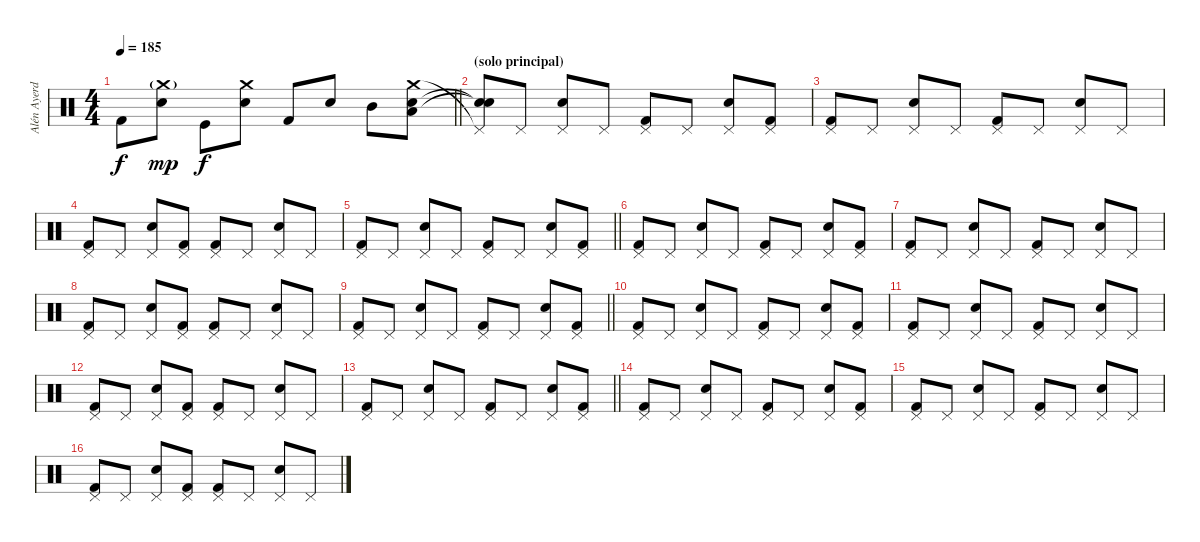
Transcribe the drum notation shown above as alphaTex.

\track ("Alén Ayerdi - Batería" "Alén Ayerd") {instrument percussion}
\staff {score}
\articulation defaults
\ts (4 4)
\tempo 185
\clef neutral
\barLineRight lightlight
\ks c "Kick (hit) 2".8{dy f}
("Crash medium (hit)"{g} "Electric Snare (hit)").8{dy mp} "Kick (hit)".8{dy f} ("Crash medium (hit)" "Electric Snare (hit)").8 "Kick (hit) 2".8 "Electric Snare (hit)".8 "Mid Tom (hit)".8 ("Crash medium (hit)" "Snare (hit) 2" "Low Tom (hit)").8 |
\section ("" "(solo principal)")
("Pedal Hi-Hat (hit)"{t} "Snare (hit)"{t} "Snare (hit)"{t}).8 "Pedal Hi-Hat (hit)".8 ("Pedal Hi-Hat (hit)" "Electric Snare (hit)").8 "Pedal Hi-Hat (hit)".8 ("Pedal Hi-Hat (hit)" "Kick (hit) 2").8 "Pedal Hi-Hat (hit)".8 ("Pedal Hi-Hat (hit)" "Electric Snare (hit)").8 ("Pedal Hi-Hat (hit)" "Kick (hit) 2").8 |
("Pedal Hi-Hat (hit)" "Kick (hit) 2").8 "Pedal Hi-Hat (hit)".8 ("Pedal Hi-Hat (hit)" "Electric Snare (hit)").8 "Pedal Hi-Hat (hit)".8 ("Pedal Hi-Hat (hit)" "Kick (hit) 2").8 "Pedal Hi-Hat (hit)".8 ("Pedal Hi-Hat (hit)" "Electric Snare (hit)").8 "Pedal Hi-Hat (hit)".8 |
("Pedal Hi-Hat (hit)" "Kick (hit) 2").8 "Pedal Hi-Hat (hit)".8 ("Pedal Hi-Hat (hit)" "Electric Snare (hit)").8 ("Pedal Hi-Hat (hit)" "Kick (hit) 2").8 ("Pedal Hi-Hat (hit)" "Kick (hit) 2").8 "Pedal Hi-Hat (hit)".8 ("Pedal Hi-Hat (hit)" "Electric Snare (hit)").8 "Pedal Hi-Hat (hit)".8 |
\barLineRight lightlight
("Pedal Hi-Hat (hit)" "Kick (hit) 2").8 "Pedal Hi-Hat (hit)".8 ("Pedal Hi-Hat (hit)" "Electric Snare (hit)").8 "Pedal Hi-Hat (hit)".8 ("Pedal Hi-Hat (hit)" "Kick (hit) 2").8 "Pedal Hi-Hat (hit)".8 ("Pedal Hi-Hat (hit)" "Electric Snare (hit)").8 ("Pedal Hi-Hat (hit)" "Kick (hit) 2").8 |
("Pedal Hi-Hat (hit)" "Kick (hit) 2").8 "Pedal Hi-Hat (hit)".8 ("Pedal Hi-Hat (hit)" "Electric Snare (hit)").8 "Pedal Hi-Hat (hit)".8 ("Pedal Hi-Hat (hit)" "Kick (hit) 2").8 "Pedal Hi-Hat (hit)".8 ("Pedal Hi-Hat (hit)" "Electric Snare (hit)").8 ("Pedal Hi-Hat (hit)" "Kick (hit) 2").8 |
("Pedal Hi-Hat (hit)" "Kick (hit) 2").8 "Pedal Hi-Hat (hit)".8 ("Pedal Hi-Hat (hit)" "Electric Snare (hit)").8 "Pedal Hi-Hat (hit)".8 ("Pedal Hi-Hat (hit)" "Kick (hit) 2").8 "Pedal Hi-Hat (hit)".8 ("Pedal Hi-Hat (hit)" "Electric Snare (hit)").8 "Pedal Hi-Hat (hit)".8 |
("Pedal Hi-Hat (hit)" "Kick (hit) 2").8 "Pedal Hi-Hat (hit)".8 ("Pedal Hi-Hat (hit)" "Electric Snare (hit)").8 ("Pedal Hi-Hat (hit)" "Kick (hit) 2").8 ("Pedal Hi-Hat (hit)" "Kick (hit) 2").8 "Pedal Hi-Hat (hit)".8 ("Pedal Hi-Hat (hit)" "Electric Snare (hit)").8 "Pedal Hi-Hat (hit)".8 |
\barLineRight lightlight
("Pedal Hi-Hat (hit)" "Kick (hit) 2").8 "Pedal Hi-Hat (hit)".8 ("Pedal Hi-Hat (hit)" "Electric Snare (hit)").8 "Pedal Hi-Hat (hit)".8 ("Pedal Hi-Hat (hit)" "Kick (hit) 2").8 "Pedal Hi-Hat (hit)".8 ("Pedal Hi-Hat (hit)" "Electric Snare (hit)").8 ("Pedal Hi-Hat (hit)" "Kick (hit) 2").8 |
("Pedal Hi-Hat (hit)" "Kick (hit) 2").8 "Pedal Hi-Hat (hit)".8 ("Pedal Hi-Hat (hit)" "Electric Snare (hit)").8 "Pedal Hi-Hat (hit)".8 ("Pedal Hi-Hat (hit)" "Kick (hit) 2").8 "Pedal Hi-Hat (hit)".8 ("Pedal Hi-Hat (hit)" "Electric Snare (hit)").8 ("Pedal Hi-Hat (hit)" "Kick (hit) 2").8 |
("Pedal Hi-Hat (hit)" "Kick (hit) 2").8 "Pedal Hi-Hat (hit)".8 ("Pedal Hi-Hat (hit)" "Electric Snare (hit)").8 "Pedal Hi-Hat (hit)".8 ("Pedal Hi-Hat (hit)" "Kick (hit) 2").8 "Pedal Hi-Hat (hit)".8 ("Pedal Hi-Hat (hit)" "Electric Snare (hit)").8 "Pedal Hi-Hat (hit)".8 |
("Pedal Hi-Hat (hit)" "Kick (hit) 2").8 "Pedal Hi-Hat (hit)".8 ("Pedal Hi-Hat (hit)" "Electric Snare (hit)").8 ("Pedal Hi-Hat (hit)" "Kick (hit) 2").8 ("Pedal Hi-Hat (hit)" "Kick (hit) 2").8 "Pedal Hi-Hat (hit)".8 ("Pedal Hi-Hat (hit)" "Electric Snare (hit)").8 "Pedal Hi-Hat (hit)".8 |
\barLineRight lightlight
("Pedal Hi-Hat (hit)" "Kick (hit) 2").8 "Pedal Hi-Hat (hit)".8 ("Pedal Hi-Hat (hit)" "Electric Snare (hit)").8 "Pedal Hi-Hat (hit)".8 ("Pedal Hi-Hat (hit)" "Kick (hit) 2").8 "Pedal Hi-Hat (hit)".8 ("Pedal Hi-Hat (hit)" "Electric Snare (hit)").8 ("Pedal Hi-Hat (hit)" "Kick (hit) 2").8 |
("Pedal Hi-Hat (hit)" "Kick (hit) 2").8 "Pedal Hi-Hat (hit)".8 ("Pedal Hi-Hat (hit)" "Electric Snare (hit)").8 "Pedal Hi-Hat (hit)".8 ("Pedal Hi-Hat (hit)" "Kick (hit) 2").8 "Pedal Hi-Hat (hit)".8 ("Pedal Hi-Hat (hit)" "Electric Snare (hit)").8 ("Pedal Hi-Hat (hit)" "Kick (hit) 2").8 |
("Pedal Hi-Hat (hit)" "Kick (hit) 2").8 "Pedal Hi-Hat (hit)".8 ("Pedal Hi-Hat (hit)" "Electric Snare (hit)").8 "Pedal Hi-Hat (hit)".8 ("Pedal Hi-Hat (hit)" "Kick (hit) 2").8 "Pedal Hi-Hat (hit)".8 ("Pedal Hi-Hat (hit)" "Electric Snare (hit)").8 "Pedal Hi-Hat (hit)".8 |
("Pedal Hi-Hat (hit)" "Kick (hit) 2").8 "Pedal Hi-Hat (hit)".8 ("Pedal Hi-Hat (hit)" "Electric Snare (hit)").8 ("Pedal Hi-Hat (hit)" "Kick (hit) 2").8 ("Pedal Hi-Hat (hit)" "Kick (hit) 2").8 "Pedal Hi-Hat (hit)".8 ("Pedal Hi-Hat (hit)" "Electric Snare (hit)").8 "Pedal Hi-Hat (hit)".8
